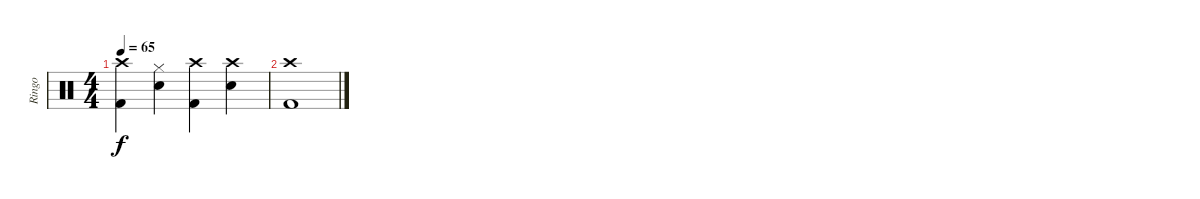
\track ("Ringo" "Ringo") {instrument percussion}
\staff {score}
\articulation defaults
\ts (4 4)
\tempo 65
\clef neutral
\ks c
("Crash high (hit)" "Kick (hit) 2").4{dy f} ("Hi-Hat (closed)" "Snare (hit) 2").4 ("Crash high (hit)" "Kick (hit) 2").4 ("Crash high (hit)" "Snare (hit) 2").4 |
("Crash high (hit)" "Kick (hit) 2").1
